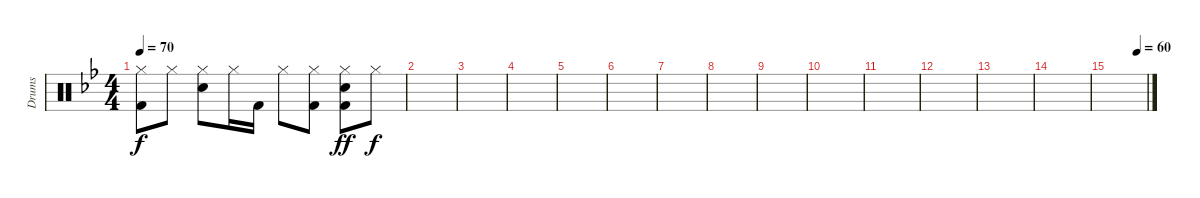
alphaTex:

\track ("Drums" "Drums") {instrument percussion}
\staff {score}
\articulation defaults
\ts (4 4)
\tempo 70
\clef neutral
\ks gminor
("Kick (hit) 2" "Hi-Hat (closed)").8{dy f} "Hi-Hat (closed)".8 ("Electric Snare (hit)" "Hi-Hat (closed)").8 "Hi-Hat (closed)".16 "Kick (hit) 2".16 "Hi-Hat (closed)".8 ("Hi-Hat (closed)" "Kick (hit) 2").8 ("Hi-Hat (closed)" "Electric Snare (hit)" "Kick (hit) 2").8{dy ff} "Hi-Hat (closed)".8{dy f} |
|
|
|
|
|
|
|
|
|
|
|
|
|
\tempo (60 0.75)
